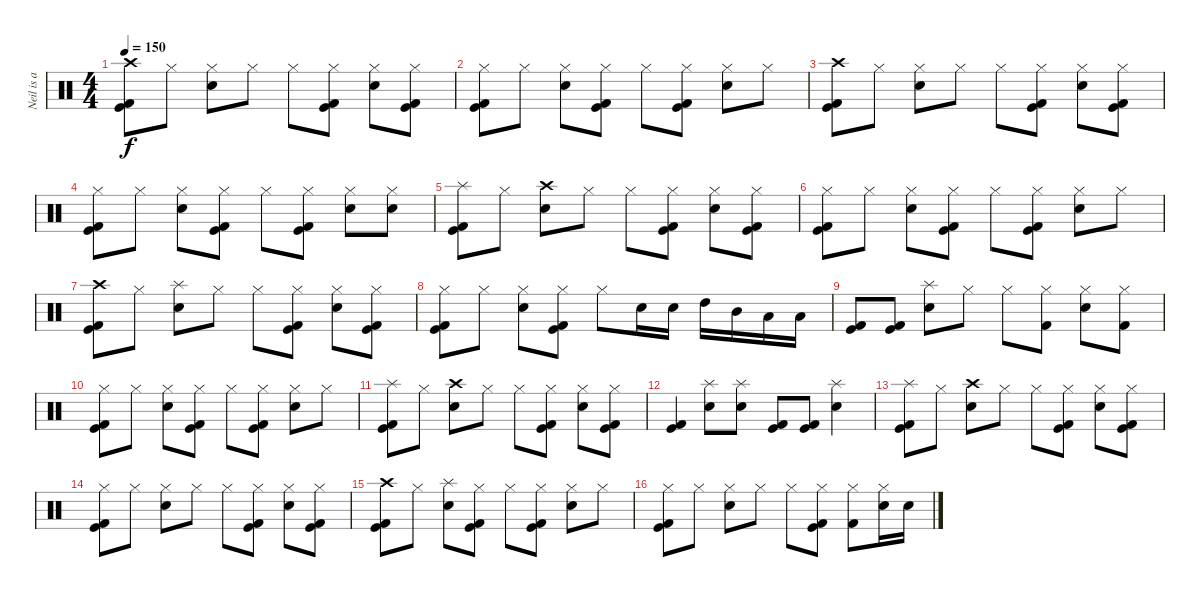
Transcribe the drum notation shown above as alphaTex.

\track ("Neil is a Drum God!!!" "Neil is a ") {instrument percussion}
\staff {score}
\articulation defaults
\ts (4 4)
\tempo 150
\clef neutral
\ks c
("Crash high (hit)" "Kick (hit)" "Kick (hit) 2").8{dy f} "Hi-Hat (closed)".8 ("Hi-Hat (closed)" "Snare (hit) 2").8 "Hi-Hat (closed)".8 "Hi-Hat (closed)".8 ("Hi-Hat (closed)" "Kick (hit)" "Kick (hit) 2").8 ("Hi-Hat (closed)" "Snare (hit) 2").8 ("Hi-Hat (closed)" "Kick (hit)" "Kick (hit) 2").8 |
("Hi-Hat (closed)" "Kick (hit)" "Kick (hit) 2").8 "Hi-Hat (closed)".8 ("Hi-Hat (closed)" "Snare (hit) 2").8 ("Hi-Hat (closed)" "Kick (hit)" "Kick (hit) 2").8 "Hi-Hat (closed)".8 ("Hi-Hat (closed)" "Kick (hit)" "Kick (hit) 2").8 ("Hi-Hat (closed)" "Snare (hit) 2").8 "Hi-Hat (closed)".8 |
("Crash high (hit)" "Kick (hit)" "Kick (hit) 2").8 "Hi-Hat (closed)".8 ("Hi-Hat (closed)" "Snare (hit) 2").8 "Hi-Hat (closed)".8 "Hi-Hat (closed)".8 ("Hi-Hat (closed)" "Kick (hit)" "Kick (hit) 2").8 ("Hi-Hat (closed)" "Snare (hit) 2").8 ("Hi-Hat (closed)" "Kick (hit)" "Kick (hit) 2").8 |
("Hi-Hat (closed)" "Kick (hit)" "Kick (hit) 2").8 "Hi-Hat (closed)".8 ("Hi-Hat (closed)" "Snare (hit) 2").8 ("Hi-Hat (closed)" "Kick (hit)" "Kick (hit) 2").8 "Hi-Hat (closed)".8 ("Hi-Hat (closed)" "Kick (hit)" "Kick (hit) 2").8 ("Hi-Hat (closed)" "Snare (hit) 2").8 ("Hi-Hat (closed)" "Snare (hit) 2").8 |
("Splash (hit)" "Kick (hit)" "Kick (hit) 2").8 "Hi-Hat (closed)".8 ("Crash high (hit)" "Snare (hit) 2").8 "Hi-Hat (closed)".8 "Hi-Hat (closed)".8 ("Hi-Hat (closed)" "Kick (hit)" "Kick (hit) 2").8 ("Hi-Hat (closed)" "Snare (hit) 2").8 ("Hi-Hat (closed)" "Kick (hit)" "Kick (hit) 2").8 |
("Hi-Hat (closed)" "Kick (hit)" "Kick (hit) 2").8 "Hi-Hat (closed)".8 ("Hi-Hat (closed)" "Snare (hit) 2").8 ("Hi-Hat (closed)" "Kick (hit)" "Kick (hit) 2").8 "Hi-Hat (closed)".8 ("Hi-Hat (closed)" "Kick (hit)" "Kick (hit) 2").8 ("Hi-Hat (closed)" "Snare (hit) 2").8 "Hi-Hat (closed)".8 |
("Crash high (hit)" "Kick (hit)" "Kick (hit) 2").8 "Hi-Hat (closed)".8 ("Splash (hit)" "Snare (hit) 2").8 "Hi-Hat (closed)".8 "Hi-Hat (closed)".8 ("Hi-Hat (closed)" "Kick (hit)" "Kick (hit) 2").8 ("Hi-Hat (closed)" "Snare (hit) 2").8 ("Hi-Hat (closed)" "Kick (hit)" "Kick (hit) 2").8 |
("Hi-Hat (closed)" "Kick (hit)" "Kick (hit) 2").8 "Hi-Hat (closed)".8 ("Hi-Hat (closed)" "Snare (hit) 2").8 ("Hi-Hat (closed)" "Kick (hit)" "Kick (hit) 2").8 "Hi-Hat (closed)".8 "Snare (hit) 2".16 "Snare (hit) 2".16 "High Tom (hit)".16 "Mid Tom (hit)".16 "Low Tom (hit)".16 "Low Floor Tom (hit)".16 |
("Kick (hit)" "Kick (hit) 2").8 ("Kick (hit)" "Kick (hit) 2").8 ("Splash (hit)" "Snare (hit) 2").8 "Hi-Hat (closed)".8 "Hi-Hat (closed)".8 ("Hi-Hat (closed)" "Kick (hit) 2").8 ("Hi-Hat (closed)" "Snare (hit) 2").8 ("Hi-Hat (closed)" "Kick (hit) 2").8 |
("Hi-Hat (closed)" "Kick (hit)" "Kick (hit) 2").8 "Hi-Hat (closed)".8 ("Hi-Hat (closed)" "Snare (hit) 2").8 ("Hi-Hat (closed)" "Kick (hit)" "Kick (hit) 2").8 "Hi-Hat (closed)".8 ("Hi-Hat (closed)" "Kick (hit)" "Kick (hit) 2").8 ("Hi-Hat (closed)" "Snare (hit) 2").8 "Hi-Hat (closed)".8 |
("Splash (hit)" "Kick (hit)" "Kick (hit) 2").8 "Hi-Hat (closed)".8 ("Crash high (hit)" "Snare (hit) 2").8 "Hi-Hat (closed)".8 "Hi-Hat (closed)".8 ("Hi-Hat (closed)" "Kick (hit)" "Kick (hit) 2").8 ("Hi-Hat (closed)" "Snare (hit) 2").8 ("Hi-Hat (closed)" "Kick (hit)" "Kick (hit) 2").8 |
("Kick (hit)" "Kick (hit) 2").4 ("Splash (hit)" "Snare (hit) 2").8 ("Splash (hit)" "Snare (hit) 2").8 ("Kick (hit)" "Kick (hit) 2").8 ("Kick (hit)" "Kick (hit) 2").8 ("Splash (hit)" "Snare (hit) 2").4 |
("Splash (hit)" "Kick (hit)" "Kick (hit) 2").8 "Hi-Hat (closed)".8 ("Crash high (hit)" "Snare (hit) 2").8 "Hi-Hat (closed)".8 "Hi-Hat (closed)".8 ("Hi-Hat (closed)" "Kick (hit)" "Kick (hit) 2").8 ("Hi-Hat (closed)" "Snare (hit) 2").8 ("Hi-Hat (closed)" "Kick (hit)" "Kick (hit) 2").8 |
("Hi-Hat (closed)" "Kick (hit)" "Kick (hit) 2").8 "Hi-Hat (closed)".8 ("Hi-Hat (closed)" "Snare (hit) 2").8 "Hi-Hat (closed)".8 "Hi-Hat (closed)".8 ("Hi-Hat (closed)" "Kick (hit)" "Kick (hit) 2").8 ("Hi-Hat (closed)" "Snare (hit) 2").8 ("Hi-Hat (closed)" "Kick (hit)" "Kick (hit) 2").8 |
("Crash high (hit)" "Kick (hit)" "Kick (hit) 2").8 "Hi-Hat (closed)".8 ("Splash (hit)" "Snare (hit) 2").8 ("Hi-Hat (closed)" "Kick (hit)" "Kick (hit) 2").8 "Hi-Hat (closed)".8 ("Hi-Hat (closed)" "Kick (hit)" "Kick (hit) 2").8 ("Hi-Hat (closed)" "Snare (hit) 2").8 "Hi-Hat (closed)".8 |
("Hi-Hat (closed)" "Kick (hit)" "Kick (hit) 2").8 "Hi-Hat (closed)".8 ("Hi-Hat (closed)" "Snare (hit) 2").8 "Hi-Hat (closed)".8 "Hi-Hat (closed)".8 ("Hi-Hat (closed)" "Kick (hit)" "Kick (hit) 2").8 ("Hi-Hat (closed)" "Kick (hit) 2").8 ("Hi-Hat (closed)" "Snare (hit) 2").16 "Snare (hit) 2".16
